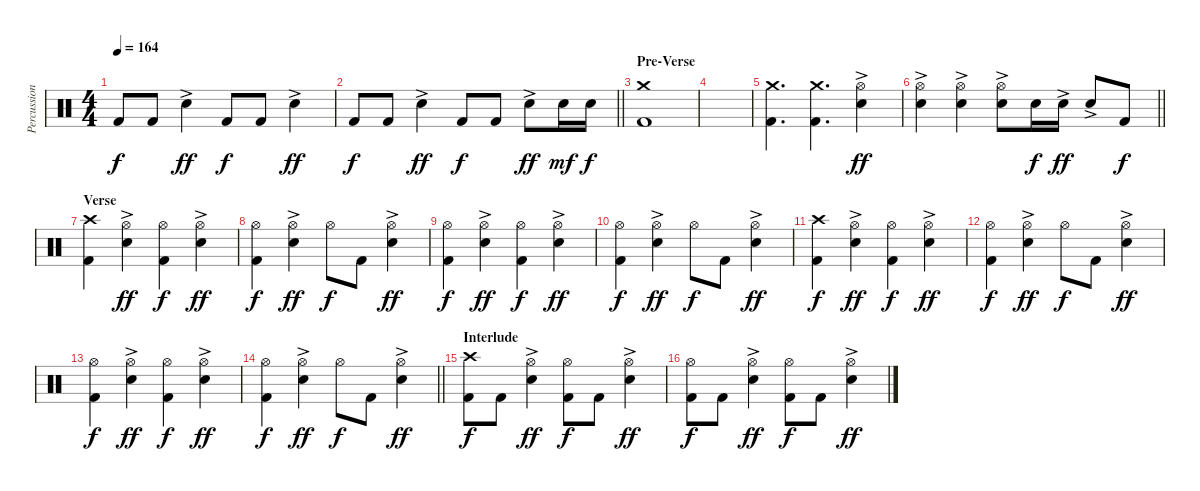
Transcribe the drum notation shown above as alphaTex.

\track ("Percussion" "Percussion") {instrument percussion}
\staff {score}
\articulation defaults
\ts (4 4)
\tempo 164
\clef neutral
\ks c "Kick (hit) 2".8{dy f} "Kick (hit) 2".8 "Electric Snare (hit)"{ac}.4{dy ff} "Kick (hit) 2".8{dy f} "Kick (hit) 2".8 "Electric Snare (hit)"{ac}.4{dy ff}
|
\barLineRight lightlight "Kick (hit) 2".8{dy f} "Kick (hit) 2".8 "Electric Snare (hit)"{ac}.4{dy ff} "Kick (hit) 2".8{dy f} "Kick (hit) 2".8 "Electric Snare (hit)"{ac}.8{dy ff} "Electric Snare (hit)".16{dy mf} "Electric Snare (hit)".16{dy f}
|
\section ("" "Pre-Verse")
("Crash medium (hit)" "Kick (hit) 2").1 |
|
("Crash medium (hit)" "Kick (hit) 2").4{d} ("Crash medium (hit)" "Kick (hit) 2").4{d} ("Hi-Hat (open)" "Electric Snare (hit)"{ac}).4{dy ff} |
\barLineRight lightlight
("Hi-Hat (open)" "Electric Snare (hit)"{ac}).4 ("Hi-Hat (open)" "Electric Snare (hit)"{ac}).4 ("Hi-Hat (open)" "Electric Snare (hit)"{ac}).8 "Electric Snare (hit)".16{dy f} "Electric Snare (hit)"{ac}.16{dy ff} "Electric Snare (hit)"{ac}.8 "Kick (hit) 2".8{dy f} |
\section ("" "Verse")
("Crash high (hit)" "Kick (hit) 2").4 ("Hi-Hat (open)" "Electric Snare (hit)"{ac}).4{dy ff} ("Hi-Hat (open)" "Kick (hit) 2").4{dy f} ("Hi-Hat (open)" "Electric Snare (hit)"{ac}).4{dy ff} |
("Hi-Hat (open)" "Kick (hit) 2").4{dy f} ("Hi-Hat (open)" "Electric Snare (hit)"{ac}).4{dy ff} "Hi-Hat (open)".8{dy f} "Kick (hit) 2".8 ("Hi-Hat (open)" "Electric Snare (hit)"{ac}).4{dy ff} |
("Hi-Hat (open)" "Kick (hit) 2").4{dy f} ("Hi-Hat (open)" "Electric Snare (hit)"{ac}).4{dy ff} ("Hi-Hat (open)" "Kick (hit) 2").4{dy f} ("Hi-Hat (open)" "Electric Snare (hit)"{ac}).4{dy ff} |
("Hi-Hat (open)" "Kick (hit) 2").4{dy f} ("Hi-Hat (open)" "Electric Snare (hit)"{ac}).4{dy ff} "Hi-Hat (open)".8{dy f} "Kick (hit) 2".8 ("Hi-Hat (open)" "Electric Snare (hit)"{ac}).4{dy ff} |
("Crash high (hit)" "Kick (hit) 2").4{dy f} ("Hi-Hat (open)" "Electric Snare (hit)"{ac}).4{dy ff} ("Hi-Hat (open)" "Kick (hit) 2").4{dy f} ("Hi-Hat (open)" "Electric Snare (hit)"{ac}).4{dy ff} |
("Hi-Hat (open)" "Kick (hit) 2").4{dy f} ("Hi-Hat (open)" "Electric Snare (hit)"{ac}).4{dy ff} "Hi-Hat (open)".8{dy f} "Kick (hit) 2".8 ("Hi-Hat (open)" "Electric Snare (hit)"{ac}).4{dy ff} |
("Hi-Hat (open)" "Kick (hit) 2").4{dy f} ("Hi-Hat (open)" "Electric Snare (hit)"{ac}).4{dy ff} ("Hi-Hat (open)" "Kick (hit) 2").4{dy f} ("Hi-Hat (open)" "Electric Snare (hit)"{ac}).4{dy ff} |
\barLineRight lightlight
("Hi-Hat (open)" "Kick (hit) 2").4{dy f} ("Hi-Hat (open)" "Electric Snare (hit)"{ac}).4{dy ff} "Hi-Hat (open)".8{dy f} "Kick (hit) 2".8 ("Hi-Hat (open)" "Electric Snare (hit)"{ac}).4{dy ff} |
\section ("" "Interlude")
("Crash high (hit)" "Kick (hit) 2").8{dy f} "Kick (hit) 2".8 ("Hi-Hat (open)" "Electric Snare (hit)"{ac}).4{dy ff} ("Hi-Hat (open)" "Kick (hit) 2").8{dy f} "Kick (hit) 2".8 ("Hi-Hat (open)" "Electric Snare (hit)"{ac}).4{dy ff} |
("Hi-Hat (open)" "Kick (hit) 2").8{dy f} "Kick (hit) 2".8 ("Hi-Hat (open)" "Electric Snare (hit)"{ac}).4{dy ff} ("Hi-Hat (open)" "Kick (hit) 2").8{dy f} "Kick (hit) 2".8 ("Hi-Hat (open)" "Electric Snare (hit)"{ac}).4{dy ff}
